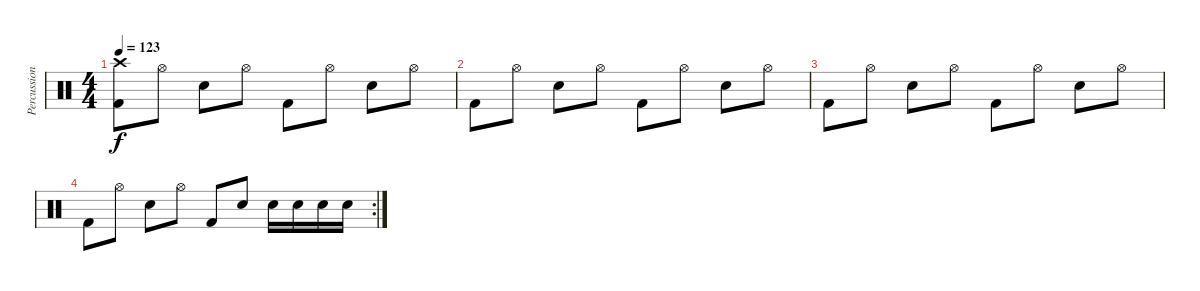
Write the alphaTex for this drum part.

\track ("Percussions" "Percussion") {instrument percussion}
\staff {score}
\articulation defaults
\ts (4 4)
\tempo 123
\clef neutral
\ks c
("Kick (hit) 2" "Crash high (hit)").8{dy f} "Hi-Hat (open)".8 "Snare (hit) 2".8 "Hi-Hat (open)".8 "Kick (hit) 2".8 "Hi-Hat (open)".8 "Snare (hit) 2".8 "Hi-Hat (open)".8 |
"Kick (hit) 2".8 "Hi-Hat (open)".8 "Snare (hit) 2".8 "Hi-Hat (open)".8 "Kick (hit) 2".8 "Hi-Hat (open)".8 "Snare (hit) 2".8 "Hi-Hat (open)".8 |
"Kick (hit) 2".8 "Hi-Hat (open)".8 "Snare (hit) 2".8 "Hi-Hat (open)".8 "Kick (hit) 2".8 "Hi-Hat (open)".8 "Snare (hit) 2".8 "Hi-Hat (open)".8 |
\rc 2 "Kick (hit) 2".8 "Hi-Hat (open)".8 "Snare (hit) 2".8 "Hi-Hat (open)".8 "Kick (hit) 2".8 "Snare (hit) 2".8 "Snare (hit) 2".16 "Snare (hit) 2".16 "Snare (hit) 2".16 "Snare (hit) 2".16
